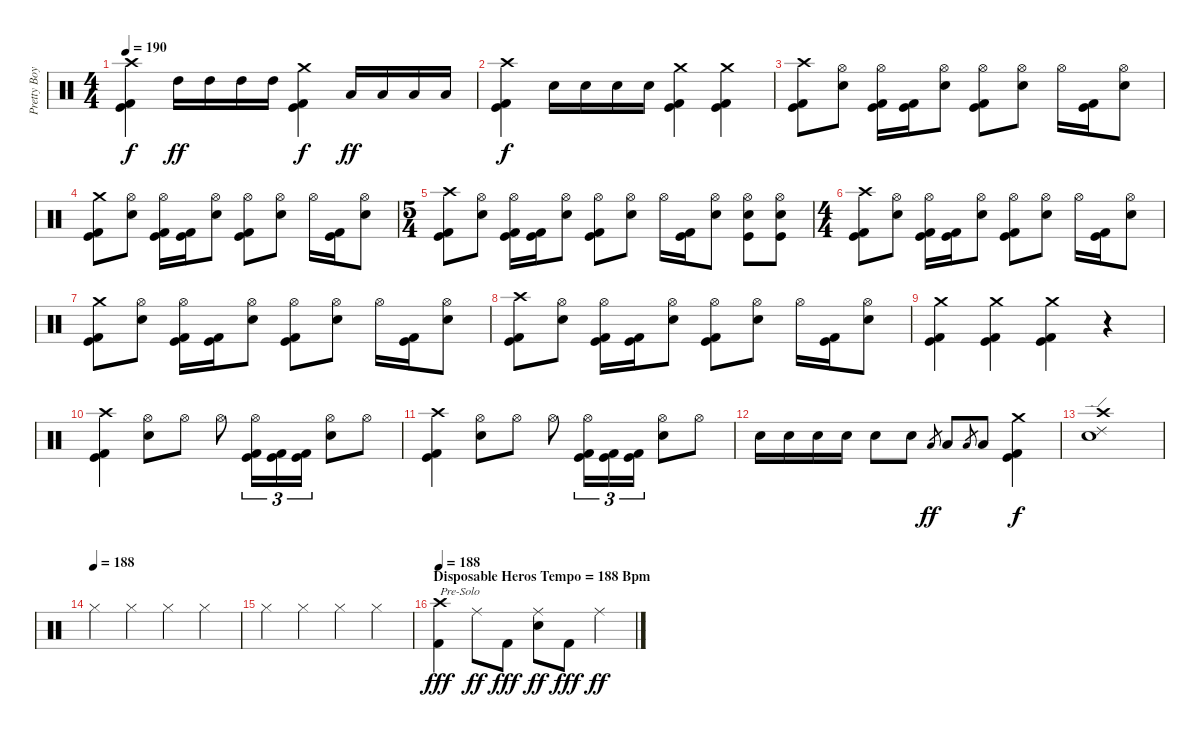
\track ("Pretty Boy Geoff (Lars Drums)" "Pretty Boy") {instrument percussion}
\staff {score}
\articulation defaults
\ts (4 4)
\tempo 190
\clef neutral
\ks c
("Crash high (hit)" "Kick (hit) 2" "Kick (hit)").4{dy f} "High Tom (hit)".16{dy ff} "High Tom (hit)".16 "High Tom (hit)".16 "High Tom (hit)".16 ("Crash medium (hit)" "Kick (hit) 2" "Kick (hit)").4{dy f} "Low Tom (hit)".16{dy ff} "Low Tom (hit)".16 "Low Tom (hit)".16 "Low Tom (hit)".16 |
("Crash high (hit)" "Kick (hit) 2" "Kick (hit)").4{dy f} "Electric Snare (hit)".16 "Electric Snare (hit)".16 "Electric Snare (hit)".16 "Electric Snare (hit)".16 ("Crash medium (hit)" "Kick (hit) 2" "Kick (hit)").4 ("Crash medium (hit)" "Kick (hit) 2" "Kick (hit)").4 |
("Crash high (hit)" "Kick (hit) 2" "Kick (hit)").8 ("Hi-Hat (open)" "Electric Snare (hit)").8 ("Hi-Hat (open)" "Kick (hit) 2" "Kick (hit)").16 ("Kick (hit) 2" "Kick (hit)").16 ("Hi-Hat (open)" "Electric Snare (hit)").8 ("Hi-Hat (open)" "Kick (hit) 2" "Kick (hit)").8 ("Hi-Hat (open)" "Electric Snare (hit)").8 "Hi-Hat (open)".16 ("Kick (hit) 2" "Kick (hit)").16 ("Hi-Hat (open)" "Electric Snare (hit)").8 |
("Crash medium (hit)" "Kick (hit) 2" "Kick (hit)").8 ("Hi-Hat (open)" "Electric Snare (hit)").8 ("Hi-Hat (open)" "Kick (hit) 2" "Kick (hit)").16 ("Kick (hit) 2" "Kick (hit)").16 ("Hi-Hat (open)" "Electric Snare (hit)").8 ("Hi-Hat (open)" "Kick (hit) 2" "Kick (hit)").8 ("Hi-Hat (open)" "Electric Snare (hit)").8 "Hi-Hat (open)".16 ("Kick (hit) 2" "Kick (hit)").16 ("Hi-Hat (open)" "Electric Snare (hit)").8 |
\ts (5 4)
("Crash high (hit)" "Kick (hit) 2" "Kick (hit)").8 ("Hi-Hat (open)" "Electric Snare (hit)").8 ("Hi-Hat (open)" "Kick (hit) 2" "Kick (hit)").16 ("Kick (hit) 2" "Kick (hit)").16 ("Hi-Hat (open)" "Electric Snare (hit)").8 ("Hi-Hat (open)" "Kick (hit) 2" "Kick (hit)").8 ("Hi-Hat (open)" "Electric Snare (hit)").8 "Hi-Hat (open)".16 ("Kick (hit) 2" "Kick (hit)").16 ("Hi-Hat (open)" "Electric Snare (hit)").8 ("Hi-Hat (open)" "Electric Snare (hit)" "Kick (hit)").8 ("Hi-Hat (open)" "Electric Snare (hit)" "Kick (hit)").8 |
\ts (4 4)
("Crash high (hit)" "Kick (hit) 2" "Kick (hit)").8 ("Hi-Hat (open)" "Electric Snare (hit)").8 ("Hi-Hat (open)" "Kick (hit) 2" "Kick (hit)").16 ("Kick (hit) 2" "Kick (hit)").16 ("Hi-Hat (open)" "Electric Snare (hit)").8 ("Hi-Hat (open)" "Kick (hit) 2" "Kick (hit)").8 ("Hi-Hat (open)" "Electric Snare (hit)").8 "Hi-Hat (open)".16 ("Kick (hit) 2" "Kick (hit)").16 ("Hi-Hat (open)" "Electric Snare (hit)").8 |
("Crash medium (hit)" "Kick (hit) 2" "Kick (hit)").8 ("Hi-Hat (open)" "Electric Snare (hit)").8 ("Hi-Hat (open)" "Kick (hit) 2" "Kick (hit)").16 ("Kick (hit) 2" "Kick (hit)").16 ("Hi-Hat (open)" "Electric Snare (hit)").8 ("Hi-Hat (open)" "Kick (hit) 2" "Kick (hit)").8 ("Hi-Hat (open)" "Electric Snare (hit)").8 "Hi-Hat (open)".16 ("Kick (hit) 2" "Kick (hit)").16 ("Hi-Hat (open)" "Electric Snare (hit)").8 |
("Crash high (hit)" "Kick (hit) 2" "Kick (hit)").8 ("Hi-Hat (open)" "Electric Snare (hit)").8 ("Hi-Hat (open)" "Kick (hit) 2" "Kick (hit)").16 ("Kick (hit) 2" "Kick (hit)").16 ("Hi-Hat (open)" "Electric Snare (hit)").8 ("Hi-Hat (open)" "Kick (hit) 2" "Kick (hit)").8 ("Hi-Hat (open)" "Electric Snare (hit)").8 "Hi-Hat (open)".16 ("Kick (hit) 2" "Kick (hit)").16 ("Hi-Hat (open)" "Electric Snare (hit)").8 |
("Crash medium (hit)" "Kick (hit) 2" "Kick (hit)").4 ("Crash medium (hit)" "Kick (hit) 2" "Kick (hit)").4 ("Crash medium (hit)" "Kick (hit) 2" "Kick (hit)").4 r.4 |
("Crash high (hit)" "Kick (hit) 2" "Kick (hit)").4 ("Hi-Hat (open)" "Electric Snare (hit)").8 "Hi-Hat (open)".8 "Hi-Hat (open)".8 ("Hi-Hat (open)" "Kick (hit) 2" "Kick (hit)").16{tu (3 2)} ("Kick (hit) 2" "Kick (hit)").16{tu (3 2)} ("Kick (hit) 2" "Kick (hit)").16{tu (3 2)} ("Hi-Hat (open)" "Electric Snare (hit)").8 "Hi-Hat (open)".8 |
("Crash high (hit)" "Kick (hit) 2" "Kick (hit)").4 ("Hi-Hat (open)" "Electric Snare (hit)").8 "Hi-Hat (open)".8 "Hi-Hat (open)".8 ("Hi-Hat (open)" "Kick (hit) 2" "Kick (hit)").16{tu (3 2)} ("Kick (hit) 2" "Kick (hit)").16{tu (3 2)} ("Kick (hit) 2" "Kick (hit)").16{tu (3 2)} ("Hi-Hat (open)" "Electric Snare (hit)").8 "Hi-Hat (open)".8 |
"Electric Snare (hit)".16 "Electric Snare (hit)".16 "Electric Snare (hit)".16 "Electric Snare (hit)".16 "Electric Snare (hit)".8 "Electric Snare (hit)".8 "Low Tom (hit)".8{gr dy ff} "Low Tom (hit)".8 "Low Tom (hit)".8{gr} "Low Tom (hit)".8 ("Crash medium (hit)" "Kick (hit) 2" "Kick (hit)").4{dy f} |
("Crash high (hit)" "Electric Snare (hit)" "Ride (edge) 2").1 |
\tempo (188)
"Hi-Hat (closed)".4 "Hi-Hat (closed)".4 "Hi-Hat (closed)".4 "Hi-Hat (closed)".4 |
"Hi-Hat (closed)".4 "Hi-Hat (closed)".4 "Hi-Hat (closed)".4 "Hi-Hat (closed)".4 |
\section ("" "Disposable Heros Tempo = 188 Bpm")
\tempo 188
("Crash high (hit)" "Kick (hit) 2").4{txt "Pre-Solo" dy fff} "Ride (middle)".8{dy ff} "Kick (hit) 2".8{dy fff} ("Ride (middle)" "Snare (hit) 2").8{dy ff} "Kick (hit) 2".8{dy fff} "Ride (middle)".4{dy ff}
